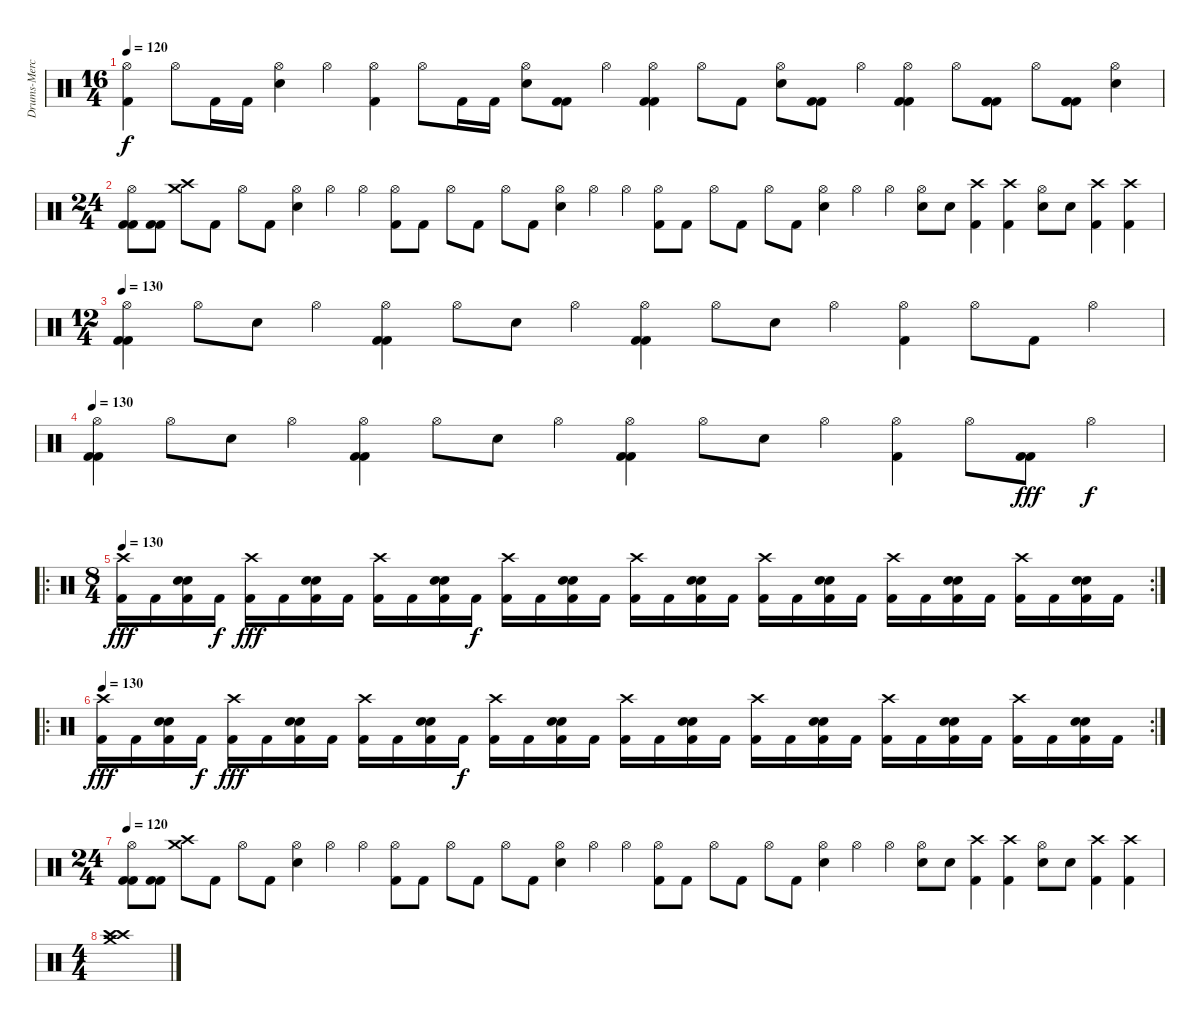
\track ("Drums-Mercedes" "Drums-Merc") {instrument percussion}
\staff {score}
\articulation defaults
\ts (16 4)
\tempo 120
\clef neutral
\ks c
("Hi-Hat (open)" "Kick (hit) 2").4{dy f} "Hi-Hat (open)".8 "Kick (hit) 2".16 "Kick (hit) 2".16 ("Hi-Hat (open)" "Electric Snare (hit)").4 "Hi-Hat (open)".4 ("Hi-Hat (open)" "Kick (hit) 2").4 "Hi-Hat (open)".8 "Kick (hit) 2".16 "Kick (hit) 2".16 ("Hi-Hat (open)" "Electric Snare (hit)").8 ("Kick (hit) 2" "Kick (hit) 2").8 "Hi-Hat (open)".4 ("Hi-Hat (open)" "Kick (hit) 2" "Kick (hit) 2").4 "Hi-Hat (open)".8 "Kick (hit) 2".8 ("Hi-Hat (open)" "Electric Snare (hit)").8 ("Kick (hit) 2" "Kick (hit) 2").8 "Hi-Hat (open)".4 ("Hi-Hat (open)" "Kick (hit) 2" "Kick (hit) 2").4 "Hi-Hat (open)".8 ("Kick (hit) 2" "Kick (hit) 2" "Kick (hit) 2").8 "Hi-Hat (open)".8 ("Kick (hit) 2" "Kick (hit) 2" "Kick (hit) 2").8 ("Hi-Hat (open)" "Electric Snare (hit)").4 |
\ts (24 4)
("Hi-Hat (open)" "Kick (hit) 2" "Kick (hit) 2").8 ("Kick (hit) 2" "Kick (hit) 2").8 ("Crash high (hit)" "Crash medium (hit)").8 "Kick (hit) 2".8 "Hi-Hat (open)".8 "Kick (hit) 2".8 ("Hi-Hat (open)" "Electric Snare (hit)").4 "Hi-Hat (open)".4 "Hi-Hat (open)".4 ("Hi-Hat (open)" "Kick (hit) 2").8 "Kick (hit) 2".8 "Hi-Hat (open)".8 "Kick (hit) 2".8 "Hi-Hat (open)".8 "Kick (hit) 2".8 ("Hi-Hat (open)" "Electric Snare (hit)").4 "Hi-Hat (open)".4 "Hi-Hat (open)".4 ("Hi-Hat (open)" "Kick (hit) 2").8 "Kick (hit) 2".8 "Hi-Hat (open)".8 "Kick (hit) 2".8 "Hi-Hat (open)".8 "Kick (hit) 2".8 ("Hi-Hat (open)" "Electric Snare (hit)").4 "Hi-Hat (open)".4 "Hi-Hat (open)".4 ("Hi-Hat (open)" "Electric Snare (hit)").8 "Electric Snare (hit)".8 ("Crash high (hit)" "Kick (hit) 2").4 ("Crash high (hit)" "Kick (hit) 2").4 ("Hi-Hat (open)" "Electric Snare (hit)").8 "Electric Snare (hit)".8 ("Crash high (hit)" "Kick (hit) 2").4 ("Crash high (hit)" "Kick (hit) 2").4 |
\ts (12 4)
\tempo 130
("Hi-Hat (open)" "Kick (hit) 2" "Kick (hit) 2").4 "Hi-Hat (open)".8 "Electric Snare (hit)".8 "Hi-Hat (open)".4 ("Hi-Hat (open)" "Kick (hit) 2" "Kick (hit) 2").4 "Hi-Hat (open)".8 "Electric Snare (hit)".8 "Hi-Hat (open)".4 ("Hi-Hat (open)" "Kick (hit) 2" "Kick (hit) 2").4 "Hi-Hat (open)".8 "Electric Snare (hit)".8 "Hi-Hat (open)".4 ("Hi-Hat (open)" "Kick (hit) 2").4 "Hi-Hat (open)".8 "Kick (hit) 2".8 "Hi-Hat (open)".4 |
\tempo 130
("Hi-Hat (open)" "Kick (hit) 2" "Kick (hit) 2").4 "Hi-Hat (open)".8 "Electric Snare (hit)".8 "Hi-Hat (open)".4 ("Hi-Hat (open)" "Kick (hit) 2" "Kick (hit) 2").4 "Hi-Hat (open)".8 "Electric Snare (hit)".8 "Hi-Hat (open)".4 ("Hi-Hat (open)" "Kick (hit) 2" "Kick (hit) 2").4 "Hi-Hat (open)".8 "Electric Snare (hit)".8 "Hi-Hat (open)".4 ("Hi-Hat (open)" "Kick (hit) 2").4 "Hi-Hat (open)".8 ("Kick (hit) 2" "Kick (hit) 2").8{dy fff} "Hi-Hat (open)".4{dy f} |
\ro
\rc 2
\ts (8 4)
\tempo 130
("Kick (hit) 2" "Crash high (hit)").16{dy fff} "Kick (hit) 2".16 ("Kick (hit) 2" "Snare (hit) 2" "Snare (hit) 2").16 "Kick (hit) 2".16{dy f} ("Kick (hit) 2" "Crash high (hit)").16{dy fff} "Kick (hit) 2".16 ("Kick (hit) 2" "Snare (hit) 2" "Snare (hit) 2").16 "Kick (hit) 2".16 ("Kick (hit) 2" "Crash high (hit)").16 "Kick (hit) 2".16 ("Kick (hit) 2" "Snare (hit) 2" "Snare (hit) 2").16 "Kick (hit) 2".16{dy f} ("Kick (hit) 2" "Crash high (hit)").16 "Kick (hit) 2".16 ("Kick (hit) 2" "Snare (hit) 2" "Snare (hit) 2").16 "Kick (hit) 2".16 ("Kick (hit) 2" "Crash high (hit)").16 "Kick (hit) 2".16 ("Kick (hit) 2" "Snare (hit) 2" "Snare (hit) 2").16 "Kick (hit) 2".16 ("Kick (hit) 2" "Crash high (hit)").16 "Kick (hit) 2".16 ("Kick (hit) 2" "Snare (hit) 2" "Snare (hit) 2").16 "Kick (hit) 2".16 ("Kick (hit) 2" "Crash high (hit)").16 "Kick (hit) 2".16 ("Kick (hit) 2" "Snare (hit) 2" "Snare (hit) 2").16 "Kick (hit) 2".16 ("Kick (hit) 2" "Crash high (hit)").16 "Kick (hit) 2".16 ("Kick (hit) 2" "Snare (hit) 2" "Snare (hit) 2").16 "Kick (hit) 2".16 |
\ro
\rc 2
\tempo 130
("Kick (hit) 2" "Crash high (hit)").16{dy fff} "Kick (hit) 2".16 ("Kick (hit) 2" "Snare (hit) 2" "Snare (hit) 2").16 "Kick (hit) 2".16{dy f} ("Kick (hit) 2" "Crash high (hit)").16{dy fff} "Kick (hit) 2".16 ("Kick (hit) 2" "Snare (hit) 2" "Snare (hit) 2").16 "Kick (hit) 2".16 ("Kick (hit) 2" "Crash high (hit)").16 "Kick (hit) 2".16 ("Kick (hit) 2" "Snare (hit) 2" "Snare (hit) 2").16 "Kick (hit) 2".16{dy f} ("Kick (hit) 2" "Crash high (hit)").16 "Kick (hit) 2".16 ("Kick (hit) 2" "Snare (hit) 2" "Snare (hit) 2").16 "Kick (hit) 2".16 ("Kick (hit) 2" "Crash high (hit)").16 "Kick (hit) 2".16 ("Kick (hit) 2" "Snare (hit) 2" "Snare (hit) 2").16 "Kick (hit) 2".16 ("Kick (hit) 2" "Crash high (hit)").16 "Kick (hit) 2".16 ("Kick (hit) 2" "Snare (hit) 2" "Snare (hit) 2").16 "Kick (hit) 2".16 ("Kick (hit) 2" "Crash high (hit)").16 "Kick (hit) 2".16 ("Kick (hit) 2" "Snare (hit) 2" "Snare (hit) 2").16 "Kick (hit) 2".16 ("Kick (hit) 2" "Crash high (hit)").16 "Kick (hit) 2".16 ("Kick (hit) 2" "Snare (hit) 2" "Snare (hit) 2").16 "Kick (hit) 2".16 |
\ts (24 4)
\tempo 120
("Hi-Hat (open)" "Kick (hit) 2" "Kick (hit) 2").8 ("Kick (hit) 2" "Kick (hit) 2").8 ("Crash high (hit)" "Crash medium (hit)").8 "Kick (hit) 2".8 "Hi-Hat (open)".8 "Kick (hit) 2".8 ("Hi-Hat (open)" "Electric Snare (hit)").4 "Hi-Hat (open)".4 "Hi-Hat (open)".4 ("Hi-Hat (open)" "Kick (hit) 2").8 "Kick (hit) 2".8 "Hi-Hat (open)".8 "Kick (hit) 2".8 "Hi-Hat (open)".8 "Kick (hit) 2".8 ("Hi-Hat (open)" "Electric Snare (hit)").4 "Hi-Hat (open)".4 "Hi-Hat (open)".4 ("Hi-Hat (open)" "Kick (hit) 2").8 "Kick (hit) 2".8 "Hi-Hat (open)".8 "Kick (hit) 2".8 "Hi-Hat (open)".8 "Kick (hit) 2".8 ("Hi-Hat (open)" "Electric Snare (hit)").4 "Hi-Hat (open)".4 "Hi-Hat (open)".4 ("Hi-Hat (open)" "Electric Snare (hit)").8 "Electric Snare (hit)".8 ("Crash high (hit)" "Kick (hit) 2").4 ("Crash high (hit)" "Kick (hit) 2").4 ("Hi-Hat (open)" "Electric Snare (hit)").8 "Electric Snare (hit)".8 ("Crash high (hit)" "Kick (hit) 2").4 ("Crash high (hit)" "Kick (hit) 2").4 |
\ts (4 4)
("Crash high (hit)" "Crash medium (hit)" "Crash high (hit)").1
